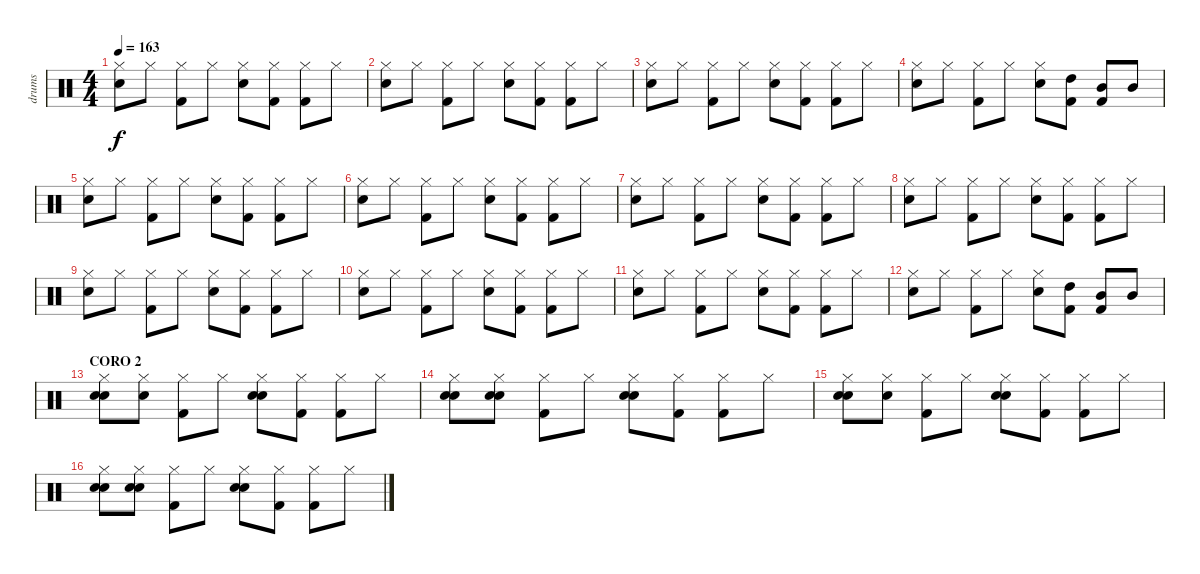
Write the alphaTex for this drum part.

\track ("drums" "drums") {instrument percussion}
\staff {score}
\articulation defaults
\ts (4 4)
\tempo 163
\clef neutral
\ks c
("Hi-Hat (closed)" "Electric Snare (hit)").8{dy f} "Hi-Hat (closed)".8 ("Hi-Hat (closed)" "Kick (hit) 2").8 "Hi-Hat (closed)".8 ("Hi-Hat (closed)" "Electric Snare (hit)").8 ("Hi-Hat (closed)" "Kick (hit) 2").8 ("Hi-Hat (closed)" "Kick (hit) 2").8 "Hi-Hat (closed)".8 |
("Hi-Hat (closed)" "Electric Snare (hit)").8 "Hi-Hat (closed)".8 ("Hi-Hat (closed)" "Kick (hit) 2").8 "Hi-Hat (closed)".8 ("Hi-Hat (closed)" "Electric Snare (hit)").8 ("Hi-Hat (closed)" "Kick (hit) 2").8 ("Hi-Hat (closed)" "Kick (hit) 2").8 "Hi-Hat (closed)".8 |
("Hi-Hat (closed)" "Electric Snare (hit)").8 "Hi-Hat (closed)".8 ("Hi-Hat (closed)" "Kick (hit) 2").8 "Hi-Hat (closed)".8 ("Hi-Hat (closed)" "Electric Snare (hit)").8 ("Hi-Hat (closed)" "Kick (hit) 2").8 ("Hi-Hat (closed)" "Kick (hit) 2").8 "Hi-Hat (closed)".8 |
("Hi-Hat (closed)" "Electric Snare (hit)").8 "Hi-Hat (closed)".8 ("Hi-Hat (closed)" "Kick (hit) 2").8 "Hi-Hat (closed)".8 ("Hi-Hat (closed)" "Electric Snare (hit)").8 ("High Tom (hit)" "Kick (hit) 2").8 ("Mid Tom (hit)" "Kick (hit) 2").8 "Mid Tom (hit)".8 |
("Hi-Hat (closed)" "Electric Snare (hit)").8 "Hi-Hat (closed)".8 ("Hi-Hat (closed)" "Kick (hit) 2").8 "Hi-Hat (closed)".8 ("Hi-Hat (closed)" "Electric Snare (hit)").8 ("Hi-Hat (closed)" "Kick (hit) 2").8 ("Hi-Hat (closed)" "Kick (hit) 2").8 "Hi-Hat (closed)".8 |
("Hi-Hat (closed)" "Electric Snare (hit)").8 "Hi-Hat (closed)".8 ("Hi-Hat (closed)" "Kick (hit) 2").8 "Hi-Hat (closed)".8 ("Hi-Hat (closed)" "Electric Snare (hit)").8 ("Hi-Hat (closed)" "Kick (hit) 2").8 ("Hi-Hat (closed)" "Kick (hit) 2").8 "Hi-Hat (closed)".8 |
("Hi-Hat (closed)" "Electric Snare (hit)").8 "Hi-Hat (closed)".8 ("Hi-Hat (closed)" "Kick (hit) 2").8 "Hi-Hat (closed)".8 ("Hi-Hat (closed)" "Electric Snare (hit)").8 ("Hi-Hat (closed)" "Kick (hit) 2").8 ("Hi-Hat (closed)" "Kick (hit) 2").8 "Hi-Hat (closed)".8 |
("Hi-Hat (closed)" "Electric Snare (hit)").8 "Hi-Hat (closed)".8 ("Hi-Hat (closed)" "Kick (hit) 2").8 "Hi-Hat (closed)".8 ("Hi-Hat (closed)" "Electric Snare (hit)").8 ("Hi-Hat (closed)" "Kick (hit) 2").8 ("Hi-Hat (closed)" "Kick (hit) 2").8 "Hi-Hat (closed)".8 |
("Hi-Hat (closed)" "Electric Snare (hit)").8 "Hi-Hat (closed)".8 ("Hi-Hat (closed)" "Kick (hit) 2").8 "Hi-Hat (closed)".8 ("Hi-Hat (closed)" "Electric Snare (hit)").8 ("Hi-Hat (closed)" "Kick (hit) 2").8 ("Hi-Hat (closed)" "Kick (hit) 2").8 "Hi-Hat (closed)".8 |
("Hi-Hat (closed)" "Electric Snare (hit)").8 "Hi-Hat (closed)".8 ("Hi-Hat (closed)" "Kick (hit) 2").8 "Hi-Hat (closed)".8 ("Hi-Hat (closed)" "Electric Snare (hit)").8 ("Hi-Hat (closed)" "Kick (hit) 2").8 ("Hi-Hat (closed)" "Kick (hit) 2").8 "Hi-Hat (closed)".8 |
("Hi-Hat (closed)" "Electric Snare (hit)").8 "Hi-Hat (closed)".8 ("Hi-Hat (closed)" "Kick (hit) 2").8 "Hi-Hat (closed)".8 ("Hi-Hat (closed)" "Electric Snare (hit)").8 ("Hi-Hat (closed)" "Kick (hit) 2").8 ("Hi-Hat (closed)" "Kick (hit) 2").8 "Hi-Hat (closed)".8 |
("Hi-Hat (closed)" "Electric Snare (hit)").8 "Hi-Hat (closed)".8 ("Hi-Hat (closed)" "Kick (hit) 2").8 "Hi-Hat (closed)".8 ("Hi-Hat (closed)" "Electric Snare (hit)").8 ("High Tom (hit)" "Kick (hit) 2").8 ("Mid Tom (hit)" "Kick (hit) 2").8 "Mid Tom (hit)".8 |
\section ("" "CORO 2")
("Hand Clap (hit)" "Hi-Hat (closed)" "Electric Snare (hit)").8 ("Hand Clap (hit)" "Hi-Hat (closed)").8 ("Hi-Hat (closed)" "Kick (hit) 2").8 "Hi-Hat (closed)".8 ("Hand Clap (hit)" "Hi-Hat (closed)" "Electric Snare (hit)").8 ("Hi-Hat (closed)" "Kick (hit) 2").8 ("Hi-Hat (closed)" "Kick (hit) 2").8 "Hi-Hat (closed)".8 |
("Hand Clap (hit)" "Hi-Hat (closed)" "Electric Snare (hit)").8 ("Hand Clap (hit)" "Hi-Hat (closed)" "Electric Snare (hit)").8 ("Hi-Hat (closed)" "Kick (hit) 2").8 "Hi-Hat (closed)".8 ("Hand Clap (hit)" "Hi-Hat (closed)" "Electric Snare (hit)").8 ("Hi-Hat (closed)" "Kick (hit) 2").8 ("Hi-Hat (closed)" "Kick (hit) 2").8 "Hi-Hat (closed)".8 |
("Hand Clap (hit)" "Hi-Hat (closed)" "Electric Snare (hit)").8 ("Hand Clap (hit)" "Hi-Hat (closed)").8 ("Hi-Hat (closed)" "Kick (hit) 2").8 "Hi-Hat (closed)".8 ("Hand Clap (hit)" "Hi-Hat (closed)" "Electric Snare (hit)").8 ("Hi-Hat (closed)" "Kick (hit) 2").8 ("Hi-Hat (closed)" "Kick (hit) 2").8 "Hi-Hat (closed)".8 |
("Hand Clap (hit)" "Hi-Hat (closed)" "Electric Snare (hit)").8 ("Hand Clap (hit)" "Hi-Hat (closed)" "Electric Snare (hit)").8 ("Hi-Hat (closed)" "Kick (hit) 2").8 "Hi-Hat (closed)".8 ("Hand Clap (hit)" "Hi-Hat (closed)" "Electric Snare (hit)").8 ("Hi-Hat (closed)" "Kick (hit) 2").8 ("Hi-Hat (closed)" "Kick (hit) 2").8 "Hi-Hat (closed)".8
